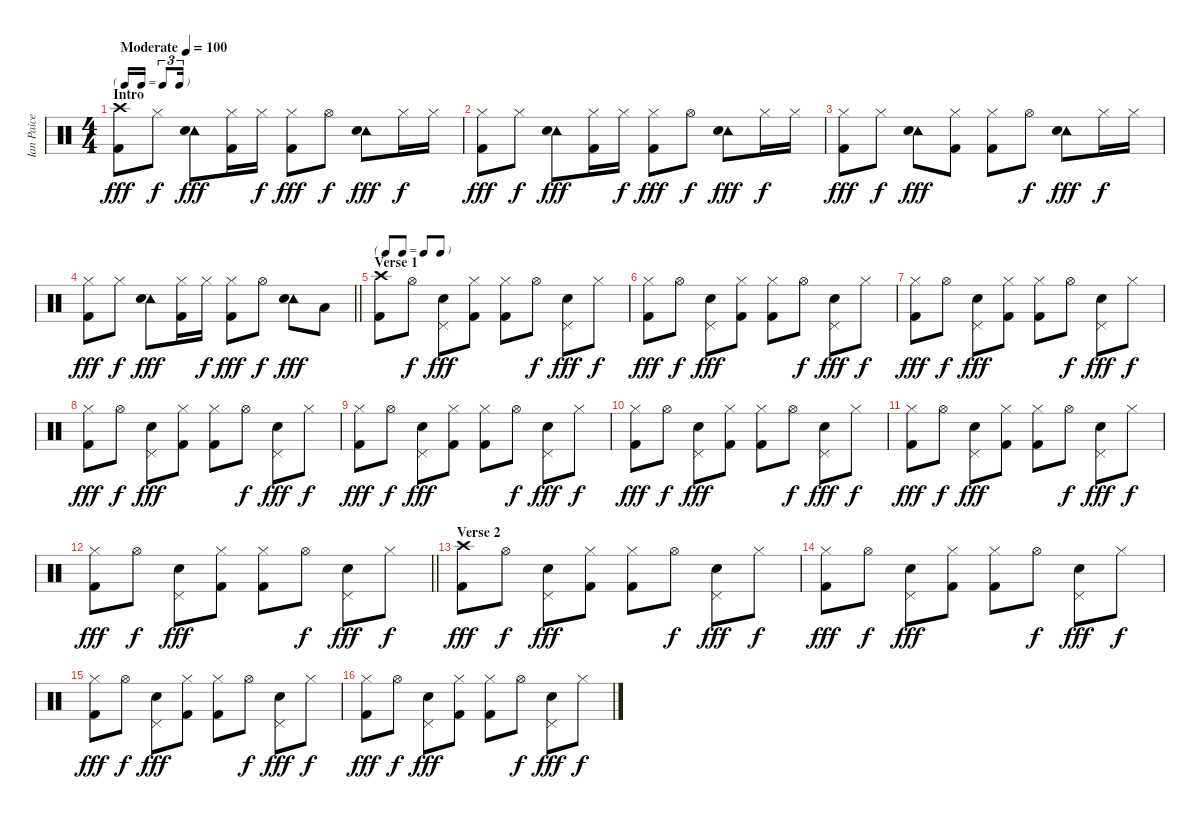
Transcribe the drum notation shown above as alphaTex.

\track ("Ian Paice" "Ian Paice") {instrument percussion}
\staff {score}
\articulation defaults
\ts (4 4)
\tf triplet16th
\section ("" "Intro")
\tempo (100 "Moderate")
\clef neutral
\ks c
("Crash high (hit)" "Kick (hit) 2").8{dy fff} "Hi-Hat (closed)".8{dy f} ("Tambourine (hit)" "Snare (hit) 2").8{dy fff} ("Hi-Hat (closed)" "Kick (hit) 2").16 "Hi-Hat (closed)".16{dy f} ("Hi-Hat (closed)" "Kick (hit) 2").8{dy fff} "Hi-Hat (open)".8{dy f} ("Tambourine (hit)" "Snare (hit) 2").8{dy fff} "Hi-Hat (closed)".16{dy f} "Hi-Hat (closed)".16 |
("Hi-Hat (closed)" "Kick (hit) 2").8{dy fff} "Hi-Hat (closed)".8{dy f} ("Tambourine (hit)" "Snare (hit) 2").8{dy fff} ("Hi-Hat (closed)" "Kick (hit) 2").16 "Hi-Hat (closed)".16{dy f} ("Hi-Hat (closed)" "Kick (hit) 2").8{dy fff} "Hi-Hat (open)".8{dy f} ("Tambourine (hit)" "Snare (hit) 2").8{dy fff} "Hi-Hat (closed)".16{dy f} "Hi-Hat (closed)".16 |
("Hi-Hat (closed)" "Kick (hit) 2").8{dy fff} "Hi-Hat (closed)".8{dy f} ("Tambourine (hit)" "Snare (hit) 2").8{dy fff} ("Hi-Hat (closed)" "Kick (hit) 2").8 ("Hi-Hat (closed)" "Kick (hit) 2").8 "Hi-Hat (open)".8{dy f} ("Tambourine (hit)" "Snare (hit) 2").8{dy fff} "Hi-Hat (closed)".16{dy f} "Hi-Hat (closed)".16 |
\barLineRight lightlight
("Hi-Hat (closed)" "Kick (hit) 2").8{dy fff} "Hi-Hat (closed)".8{dy f} ("Tambourine (hit)" "Snare (hit) 2").8{dy fff} ("Hi-Hat (closed)" "Kick (hit) 2").16 "Hi-Hat (closed)".16{dy f} ("Hi-Hat (closed)" "Kick (hit) 2").8{dy fff} "Hi-Hat (open)".8{dy f} ("Tambourine (hit)" "Snare (hit) 2").8{dy fff} "Low Tom (hit)".8 |
\tf none
\section ("" "Verse 1")
("Crash high (hit)" "Kick (hit) 2").8 "Hi-Hat (open)".8{dy f} ("Pedal Hi-Hat (hit)" "Snare (hit) 2").8{dy fff} ("Hi-Hat (closed)" "Kick (hit) 2").8 ("Hi-Hat (closed)" "Kick (hit) 2").8 "Hi-Hat (open)".8{dy f} ("Pedal Hi-Hat (hit)" "Snare (hit) 2").8{dy fff} "Hi-Hat (closed)".8{dy f} |
("Hi-Hat (closed)" "Kick (hit) 2").8{dy fff} "Hi-Hat (open)".8{dy f} ("Pedal Hi-Hat (hit)" "Snare (hit) 2").8{dy fff} ("Hi-Hat (closed)" "Kick (hit) 2").8 ("Hi-Hat (closed)" "Kick (hit) 2").8 "Hi-Hat (open)".8{dy f} ("Pedal Hi-Hat (hit)" "Snare (hit) 2").8{dy fff} "Hi-Hat (closed)".8{dy f} |
("Hi-Hat (closed)" "Kick (hit) 2").8{dy fff} "Hi-Hat (open)".8{dy f} ("Pedal Hi-Hat (hit)" "Snare (hit) 2").8{dy fff} ("Hi-Hat (closed)" "Kick (hit) 2").8 ("Hi-Hat (closed)" "Kick (hit) 2").8 "Hi-Hat (open)".8{dy f} ("Pedal Hi-Hat (hit)" "Snare (hit) 2").8{dy fff} "Hi-Hat (closed)".8{dy f} |
("Hi-Hat (closed)" "Kick (hit) 2").8{dy fff} "Hi-Hat (open)".8{dy f} ("Pedal Hi-Hat (hit)" "Snare (hit) 2").8{dy fff} ("Hi-Hat (closed)" "Kick (hit) 2").8 ("Hi-Hat (closed)" "Kick (hit) 2").8 "Hi-Hat (open)".8{dy f} ("Pedal Hi-Hat (hit)" "Snare (hit) 2").8{dy fff} "Hi-Hat (closed)".8{dy f} |
("Hi-Hat (closed)" "Kick (hit) 2").8{dy fff} "Hi-Hat (open)".8{dy f} ("Pedal Hi-Hat (hit)" "Snare (hit) 2").8{dy fff} ("Hi-Hat (closed)" "Kick (hit) 2").8 ("Hi-Hat (closed)" "Kick (hit) 2").8 "Hi-Hat (open)".8{dy f} ("Pedal Hi-Hat (hit)" "Snare (hit) 2").8{dy fff} "Hi-Hat (closed)".8{dy f} |
("Hi-Hat (closed)" "Kick (hit) 2").8{dy fff} "Hi-Hat (open)".8{dy f} ("Pedal Hi-Hat (hit)" "Snare (hit) 2").8{dy fff} ("Hi-Hat (closed)" "Kick (hit) 2").8 ("Hi-Hat (closed)" "Kick (hit) 2").8 "Hi-Hat (open)".8{dy f} ("Pedal Hi-Hat (hit)" "Snare (hit) 2").8{dy fff} "Hi-Hat (closed)".8{dy f} |
("Hi-Hat (closed)" "Kick (hit) 2").8{dy fff} "Hi-Hat (open)".8{dy f} ("Pedal Hi-Hat (hit)" "Snare (hit) 2").8{dy fff} ("Hi-Hat (closed)" "Kick (hit) 2").8 ("Hi-Hat (closed)" "Kick (hit) 2").8 "Hi-Hat (open)".8{dy f} ("Pedal Hi-Hat (hit)" "Snare (hit) 2").8{dy fff} "Hi-Hat (closed)".8{dy f} |
\barLineRight lightlight
("Hi-Hat (closed)" "Kick (hit) 2").8{dy fff} "Hi-Hat (open)".8{dy f} ("Pedal Hi-Hat (hit)" "Snare (hit) 2").8{dy fff} ("Hi-Hat (closed)" "Kick (hit) 2").8 ("Hi-Hat (closed)" "Kick (hit) 2").8 "Hi-Hat (open)".8{dy f} ("Pedal Hi-Hat (hit)" "Snare (hit) 2").8{dy fff} "Hi-Hat (closed)".8{dy f} |
\section ("" "Verse 2")
("Crash high (hit)" "Kick (hit) 2").8{dy fff} "Hi-Hat (open)".8{dy f} ("Pedal Hi-Hat (hit)" "Snare (hit) 2").8{dy fff} ("Hi-Hat (closed)" "Kick (hit) 2").8 ("Hi-Hat (closed)" "Kick (hit) 2").8 "Hi-Hat (open)".8{dy f} ("Pedal Hi-Hat (hit)" "Snare (hit) 2").8{dy fff} "Hi-Hat (closed)".8{dy f} |
("Hi-Hat (closed)" "Kick (hit) 2").8{dy fff} "Hi-Hat (open)".8{dy f} ("Pedal Hi-Hat (hit)" "Snare (hit) 2").8{dy fff} ("Hi-Hat (closed)" "Kick (hit) 2").8 ("Hi-Hat (closed)" "Kick (hit) 2").8 "Hi-Hat (open)".8{dy f} ("Pedal Hi-Hat (hit)" "Snare (hit) 2").8{dy fff} "Hi-Hat (closed)".8{dy f} |
("Hi-Hat (closed)" "Kick (hit) 2").8{dy fff} "Hi-Hat (open)".8{dy f} ("Pedal Hi-Hat (hit)" "Snare (hit) 2").8{dy fff} ("Hi-Hat (closed)" "Kick (hit) 2").8 ("Hi-Hat (closed)" "Kick (hit) 2").8 "Hi-Hat (open)".8{dy f} ("Pedal Hi-Hat (hit)" "Snare (hit) 2").8{dy fff} "Hi-Hat (closed)".8{dy f} |
("Hi-Hat (closed)" "Kick (hit) 2").8{dy fff} "Hi-Hat (open)".8{dy f} ("Pedal Hi-Hat (hit)" "Snare (hit) 2").8{dy fff} ("Hi-Hat (closed)" "Kick (hit) 2").8 ("Hi-Hat (closed)" "Kick (hit) 2").8 "Hi-Hat (open)".8{dy f} ("Pedal Hi-Hat (hit)" "Snare (hit) 2").8{dy fff} "Hi-Hat (closed)".8{dy f}
